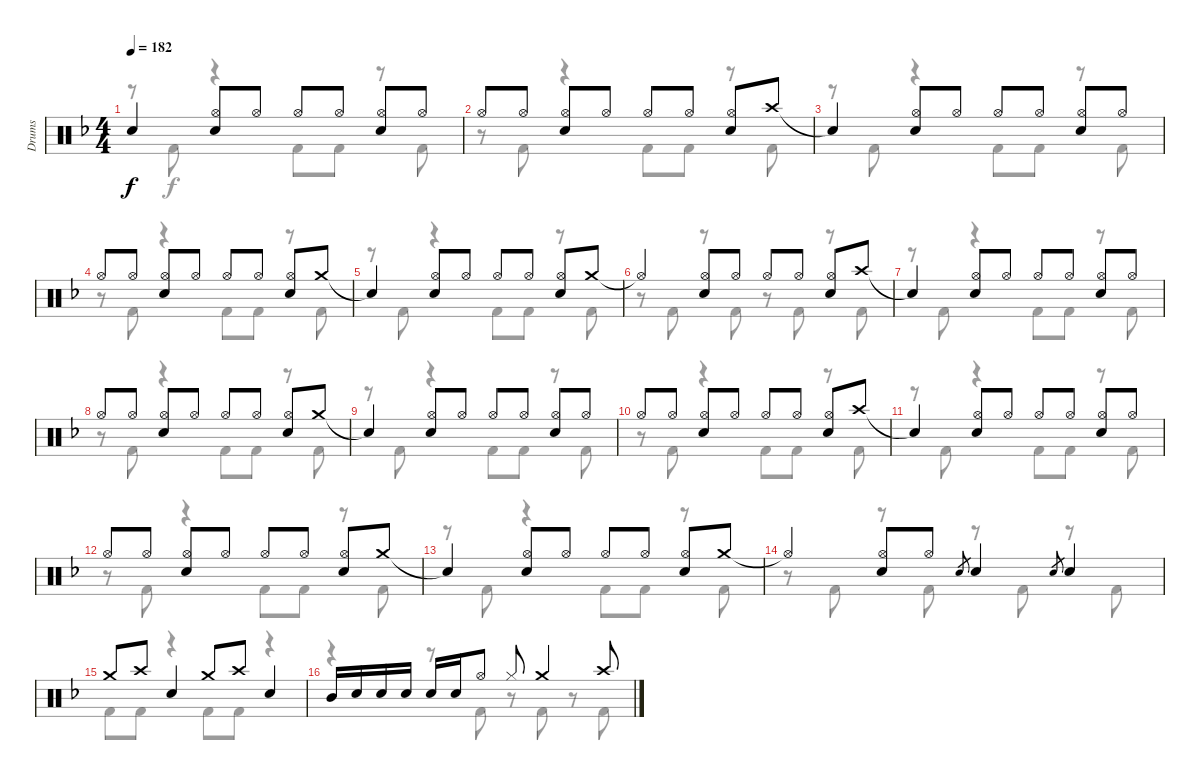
\track ("Drums" "Drums") {instrument percussion}
\staff {score}
\articulation defaults
\voice
\ts (4 4)
\tempo 182
\clef neutral
\ks f "Snare (hit)"{t}.4{dy f}
("Hi-Hat (open)" "Snare (hit) 2").8 "Hi-Hat (open)".8 "Hi-Hat (open)".8 "Hi-Hat (open)".8 ("Hi-Hat (open)" "Snare (hit) 2").8 "Hi-Hat (open)".8 |
"Hi-Hat (open)".8 "Hi-Hat (open)".8 ("Hi-Hat (open)" "Snare (hit) 2").8 "Hi-Hat (open)".8 "Hi-Hat (open)".8 "Hi-Hat (open)".8 ("Hi-Hat (open)" "Snare (hit) 2").8 "Crash high (hit)".8 |
"Snare (hit)"{t}.4 ("Hi-Hat (open)" "Snare (hit) 2").8 "Hi-Hat (open)".8 "Hi-Hat (open)".8 "Hi-Hat (open)".8 ("Hi-Hat (open)" "Snare (hit) 2").8 "Hi-Hat (open)".8 |
"Hi-Hat (open)".8 "Hi-Hat (open)".8 ("Hi-Hat (open)" "Snare (hit) 2").8 "Hi-Hat (open)".8 "Hi-Hat (open)".8 "Hi-Hat (open)".8 ("Hi-Hat (open)" "Snare (hit) 2").8 "Crash medium (hit)".8 |
"Snare (hit)"{t}.4 ("Hi-Hat (open)" "Snare (hit) 2").8 "Hi-Hat (open)".8 "Hi-Hat (open)".8 "Hi-Hat (open)".8 ("Hi-Hat (open)" "Snare (hit) 2").8 "Crash medium (hit)".8 |
"Hi-Hat (open)"{t}.4 ("Hi-Hat (open)" "Snare (hit) 2").8 "Hi-Hat (open)".8 "Hi-Hat (open)".8 "Hi-Hat (open)".8 ("Hi-Hat (open)" "Snare (hit) 2").8 "Crash high (hit)".8 |
"Snare (hit)"{t}.4 ("Hi-Hat (open)" "Snare (hit) 2").8 "Hi-Hat (open)".8 "Hi-Hat (open)".8 "Hi-Hat (open)".8 ("Hi-Hat (open)" "Snare (hit) 2").8 "Hi-Hat (open)".8 |
"Hi-Hat (open)".8 "Hi-Hat (open)".8 ("Hi-Hat (open)" "Snare (hit) 2").8 "Hi-Hat (open)".8 "Hi-Hat (open)".8 "Hi-Hat (open)".8 ("Hi-Hat (open)" "Snare (hit) 2").8 "Crash medium (hit)".8 |
"Snare (hit)"{t}.4 ("Hi-Hat (open)" "Snare (hit) 2").8 "Hi-Hat (open)".8 "Hi-Hat (open)".8 "Hi-Hat (open)".8 ("Hi-Hat (open)" "Snare (hit) 2").8 "Hi-Hat (open)".8 |
"Hi-Hat (open)".8 "Hi-Hat (open)".8 ("Hi-Hat (open)" "Snare (hit) 2").8 "Hi-Hat (open)".8 "Hi-Hat (open)".8 "Hi-Hat (open)".8 ("Hi-Hat (open)" "Snare (hit) 2").8 "Crash high (hit)".8 |
"Snare (hit)"{t}.4 ("Hi-Hat (open)" "Snare (hit) 2").8 "Hi-Hat (open)".8 "Hi-Hat (open)".8 "Hi-Hat (open)".8 ("Hi-Hat (open)" "Snare (hit) 2").8 "Hi-Hat (open)".8 |
"Hi-Hat (open)".8 "Hi-Hat (open)".8 ("Hi-Hat (open)" "Snare (hit) 2").8 "Hi-Hat (open)".8 "Hi-Hat (open)".8 "Hi-Hat (open)".8 ("Hi-Hat (open)" "Snare (hit) 2").8 "Crash medium (hit)".8 |
"Snare (hit)"{t}.4 ("Hi-Hat (open)" "Snare (hit) 2").8 "Hi-Hat (open)".8 "Hi-Hat (open)".8 "Hi-Hat (open)".8 ("Hi-Hat (open)" "Snare (hit) 2").8 "Crash medium (hit)".8 |
"Hi-Hat (open)"{t}.4 ("Hi-Hat (open)" "Snare (hit) 2").8 "Hi-Hat (open)".8 "Snare (hit) 2".8{gr} "Snare (hit) 2".4 "Snare (hit) 2".8{gr} "Snare (hit) 2".4 |
"Crash medium (hit)".8 "Crash high (hit)".8 "Snare (hit) 2".4 "Crash medium (hit)".8 "Crash high (hit)".8 "Snare (hit) 2".4 |
"Mid Tom (hit)".16 "Snare (hit) 2".16 "Snare (hit) 2".16 "Snare (hit) 2".16 "Snare (hit) 2".16 "Snare (hit) 2".16 "Hi-Hat (open)".8 "Hi-Hat (closed)".8 "Crash medium (hit)".4 "Crash high (hit)".8
\voice
\clef neutral
\ottava regular
\simile none
\ks f
r.8{dy f} "Kick (hit) 2".8 r.4 "Kick (hit) 2".8 "Kick (hit) 2".8 r.8 "Kick (hit) 2".8 |
r.8 "Kick (hit) 2".8 r.4 "Kick (hit) 2".8 "Kick (hit) 2".8 r.8 "Kick (hit) 2".8 |
r.8 "Kick (hit) 2".8 r.4 "Kick (hit) 2".8 "Kick (hit) 2".8 r.8 "Kick (hit) 2".8 |
r.8 "Kick (hit) 2".8 r.4 "Kick (hit) 2".8 "Kick (hit) 2".8 r.8 "Kick (hit) 2".8 |
r.8 "Kick (hit) 2".8 r.4 "Kick (hit) 2".8 "Kick (hit) 2".8 r.8 "Kick (hit) 2".8 |
r.8 "Kick (hit) 2".8 r.8 "Kick (hit) 2".8 r.8 "Kick (hit) 2".8 r.8 "Kick (hit) 2".8 |
r.8 "Kick (hit) 2".8 r.4 "Kick (hit) 2".8 "Kick (hit) 2".8 r.8 "Kick (hit) 2".8 |
r.8 "Kick (hit) 2".8 r.4 "Kick (hit) 2".8 "Kick (hit) 2".8 r.8 "Kick (hit) 2".8 |
r.8 "Kick (hit) 2".8 r.4 "Kick (hit) 2".8 "Kick (hit) 2".8 r.8 "Kick (hit) 2".8 |
r.8 "Kick (hit) 2".8 r.4 "Kick (hit) 2".8 "Kick (hit) 2".8 r.8 "Kick (hit) 2".8 |
r.8 "Kick (hit) 2".8 r.4 "Kick (hit) 2".8 "Kick (hit) 2".8 r.8 "Kick (hit) 2".8 |
r.8 "Kick (hit) 2".8 r.4 "Kick (hit) 2".8 "Kick (hit) 2".8 r.8 "Kick (hit) 2".8 |
r.8 "Kick (hit) 2".8 r.4 "Kick (hit) 2".8 "Kick (hit) 2".8 r.8 "Kick (hit) 2".8 |
r.8 "Kick (hit) 2".8 r.8 "Kick (hit) 2".8 r.8 "Kick (hit) 2".8 r.8 "Kick (hit) 2".8 |
"Kick (hit) 2".8 "Kick (hit) 2".8 r.4 "Kick (hit) 2".8 "Kick (hit) 2".8 r.4 |
r.4 r.8 "Kick (hit) 2".8 r.8 "Kick (hit) 2".8 r.8 "Kick (hit) 2".8
